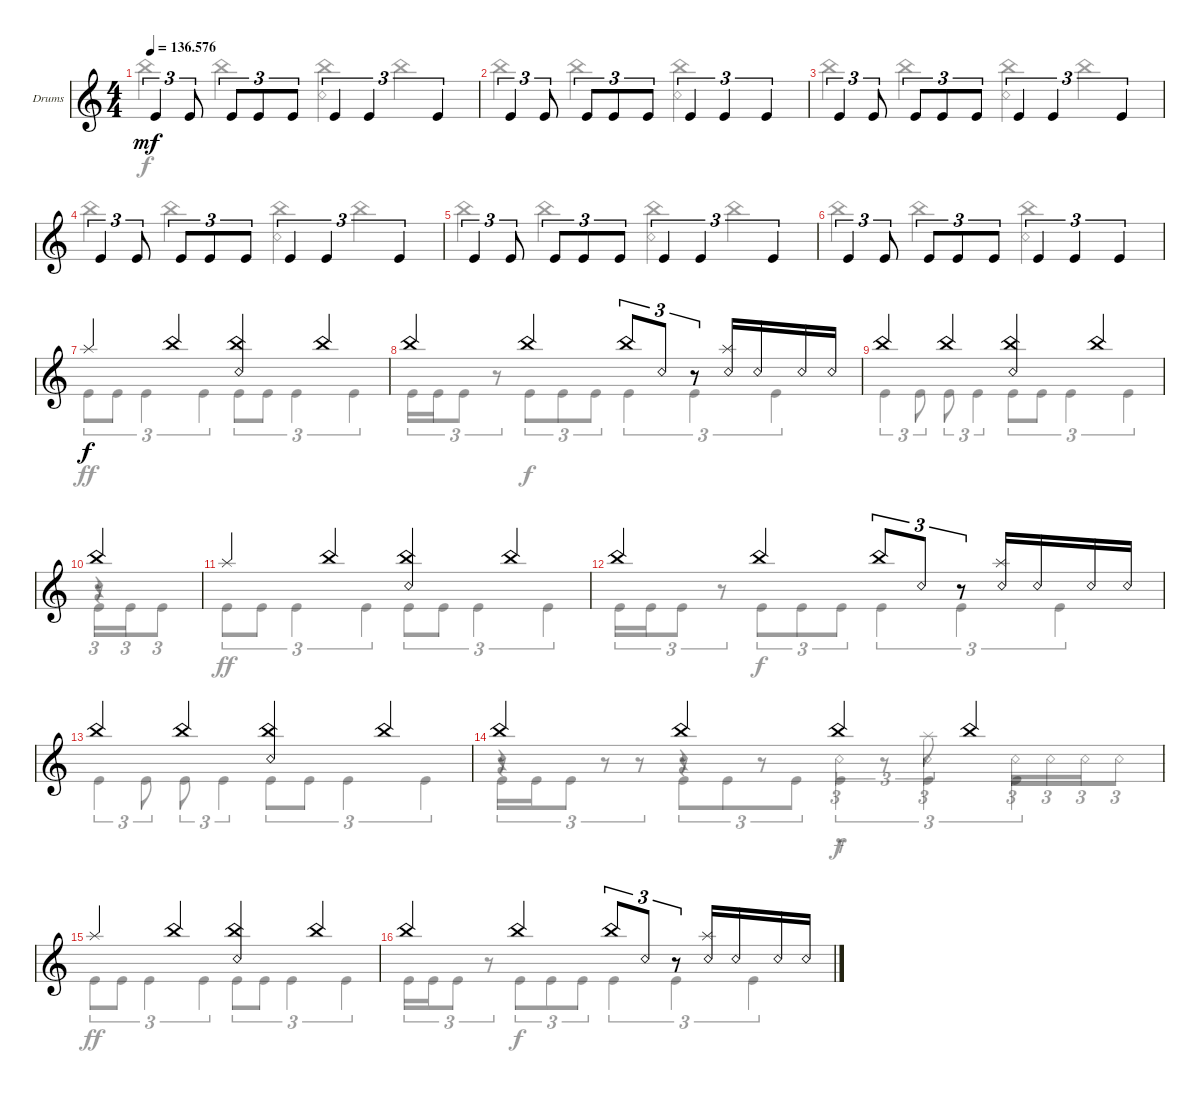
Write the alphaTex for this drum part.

\bracketExtendMode groupsimilarinstruments
\firstSystemTrackNameOrientation horizontal
\otherSystemsTrackNameOrientation horizontal
\track ("Drumkit" "Drums") {instrument percussion}
\staff {score}
\articulation defaults
\voice
\ts (4 4)
\tempo
136.576
\accidentals auto
\clef g2
\ottava regular
\simile none
\ks c "Kick (hit)".4{tu (3 2) dy mf} "Kick (hit)".8{tu (3 2)} "Kick (hit)".8{tu (3 2)} "Kick (hit)".8{tu (3 2)} "Kick (hit)".8{tu (3 2)} "Kick (hit)".4{tu (3 2)} "Kick (hit)".4{tu (3 2)} "Kick (hit)".4{tu (3 2)}
|
"Kick (hit)".4{tu (3 2)} "Kick (hit)".8{tu (3 2)} "Kick (hit)".8{tu (3 2)} "Kick (hit)".8{tu (3 2)} "Kick (hit)".8{tu (3 2)} "Kick (hit)".4{tu (3 2)} "Kick (hit)".4{tu (3 2)} "Kick (hit)".4{tu (3 2)} |
"Kick (hit)".4{tu (3 2)} "Kick (hit)".8{tu (3 2)} "Kick (hit)".8{tu (3 2)} "Kick (hit)".8{tu (3 2)} "Kick (hit)".8{tu (3 2)} "Kick (hit)".4{tu (3 2)} "Kick (hit)".4{tu (3 2)} "Kick (hit)".4{tu (3 2)} |
"Kick (hit)".4{tu (3 2)} "Kick (hit)".8{tu (3 2)} "Kick (hit)".8{tu (3 2)} "Kick (hit)".8{tu (3 2)} "Kick (hit)".8{tu (3 2)} "Kick (hit)".4{tu (3 2)} "Kick (hit)".4{tu (3 2)} "Kick (hit)".4{tu (3 2)} |
"Kick (hit)".4{tu (3 2)} "Kick (hit)".8{tu (3 2)} "Kick (hit)".8{tu (3 2)} "Kick (hit)".8{tu (3 2)} "Kick (hit)".8{tu (3 2)} "Kick (hit)".4{tu (3 2)} "Kick (hit)".4{tu (3 2)} "Kick (hit)".4{tu (3 2)} |
"Kick (hit)".4{tu (3 2)} "Kick (hit)".8{tu (3 2)} "Kick (hit)".8{tu (3 2)} "Kick (hit)".8{tu (3 2)} "Kick (hit)".8{tu (3 2)} "Kick (hit)".4{tu (3 2)} "Kick (hit)".4{tu (3 2)} "Kick (hit)".4{tu (3 2)} |
"Splash (hit)".4{dy f} "China (hit)".4 ("China (hit)" "Snare (rim shot)").4 "China (hit)".4 |
"China (hit)".4 "China (hit)".4 "China (hit)".8{tu (3 2)} "Snare (rim shot)".8{tu (3 2)} r.8{tu (3 2)} ("Snare (rim shot)" "Splash (hit)").16 "Snare (rim shot)".16 "Snare (rim shot)".16 "Snare (rim shot)".16 |
"China (hit)".4 "China (hit)".4 ("China (hit)" "Snare (rim shot)").4 "China (hit)".4 |
"China (hit)".4 |
"Splash (hit)".4 "China (hit)".4 ("China (hit)" "Snare (rim shot)").4 "China (hit)".4 |
"China (hit)".4 "China (hit)".4 "China (hit)".8{tu (3 2)} "Snare (rim shot)".8{tu (3 2)} r.8{tu (3 2)} ("Snare (rim shot)" "Splash (hit)").16 "Snare (rim shot)".16 "Snare (rim shot)".16 "Snare (rim shot)".16 |
"China (hit)".4 "China (hit)".4 ("China (hit)" "Snare (rim shot)").4 "China (hit)".4 |
"China (hit)".4 "China (hit)".4 "China (hit)".4 "China (hit)".4 |
"Splash (hit)".4 "China (hit)".4 ("China (hit)" "Snare (rim shot)").4 "China (hit)".4 |
"China (hit)".4 "China (hit)".4 "China (hit)".8{tu (3 2)} "Snare (rim shot)".8{tu (3 2)} r.8{tu (3 2)} ("Snare (rim shot)" "Splash (hit)").16 "Snare (rim shot)".16 "Snare (rim shot)".16 "Snare (rim shot)".16
\voice
\clef g2
\ottava regular
\simile none
\ks c
|
|
|
|
|
|
|
|
|
r.4 |
|
|
|
r.4 r.4 "Snare (rim shot)".4{tu (3 2)} "Snare (rim shot)".4{tu (3 2)} "Snare (rim shot)".16{tu (3 2)} "Snare (rim shot)".16{tu (3 2)} "Snare (rim shot)".16{tu (3 2)} "Snare (rim shot)".8{tu (3 2)} |
|
\voice
\clef g2
\ottava regular
\simile none
\ks c "China (hit)".4{dy f} "China (hit)".4
("China (hit)" "Snare (rim shot)").4 "China (hit)".4 |
"China (hit)".4 "China (hit)".4 ("China (hit)" "Snare (rim shot)").4 |
"China (hit)".4 "China (hit)".4 ("China (hit)" "Snare (rim shot)").4 "China (hit)".4 |
"China (hit)".4 "China (hit)".4 ("China (hit)" "Snare (rim shot)").4 "China (hit)".4 |
"China (hit)".4 "China (hit)".4 ("China (hit)" "Snare (rim shot)").4 "China (hit)".4 |
"China (hit)".4 "China (hit)".4 ("China (hit)" "Snare (rim shot)").4 |
|
|
|
r.8 |
|
|
|
r.8 r.8 r.8 r.8 r.8{tu (3 2)} r.8{tu (3 2)} "Splash (hit)".8{tu (3 2)} |
|
\voice
\clef g2
\ottava regular
\simile none
\ks c
|
|
|
|
|
|
"Kick (hit)".8{tu (3 2) dy ff} "Kick (hit)".8{tu (3 2)} "Kick (hit)".4{tu (3 2)} "Kick (hit)".4{tu (3 2)} "Kick (hit)".8{tu (3 2)} "Kick (hit)".8{tu (3 2)} "Kick (hit)".4{tu (3 2)} "Kick (hit)".4{tu (3 2)} |
"Kick (hit)".16{tu (3 2)} "Kick (hit)".16{tu (3 2)} "Kick (hit)".8{tu (3 2)} r.8{tu (3 2)} "Kick (hit)".8{tu (3 2) dy f} "Kick (hit)".8{tu (3 2)} "Kick (hit)".8{tu (3 2)} "Kick (hit)".4{tu (3 2)} "Kick (hit)".4{tu (3 2)} "Kick (hit)".4{tu (3 2)} |
"Kick (hit)".4{tu (3 2)} "Kick (hit)".8{tu (3 2)} "Kick (hit)".8{tu (3 2)} "Kick (hit)".4{tu (3 2)} "Kick (hit)".8{tu (3 2)} "Kick (hit)".8{tu (3 2)} "Kick (hit)".4{tu (3 2)} "Kick (hit)".4{tu (3 2)} |
"Kick (hit)".16{tu (3 2)} "Kick (hit)".16{tu (3 2)} "Kick (hit)".8{tu (3 2)} |
"Kick (hit)".8{tu (3 2) dy ff} "Kick (hit)".8{tu (3 2)} "Kick (hit)".4{tu (3 2)} "Kick (hit)".4{tu (3 2)} "Kick (hit)".8{tu (3 2)} "Kick (hit)".8{tu (3 2)} "Kick (hit)".4{tu (3 2)} "Kick (hit)".4{tu (3 2)} |
"Kick (hit)".16{tu (3 2)} "Kick (hit)".16{tu (3 2)} "Kick (hit)".8{tu (3 2)} r.8{tu (3 2)} "Kick (hit)".8{tu (3 2) dy f} "Kick (hit)".8{tu (3 2)} "Kick (hit)".8{tu (3 2)} "Kick (hit)".4{tu (3 2)} "Kick (hit)".4{tu (3 2)} "Kick (hit)".4{tu (3 2)} |
"Kick (hit)".4{tu (3 2)} "Kick (hit)".8{tu (3 2)} "Kick (hit)".8{tu (3 2)} "Kick (hit)".4{tu (3 2)} "Kick (hit)".8{tu (3 2)} "Kick (hit)".8{tu (3 2)} "Kick (hit)".4{tu (3 2)} "Kick (hit)".4{tu (3 2)} |
"Kick (hit)".16{tu (3 2)} "Kick (hit)".16{tu (3 2)} "Kick (hit)".8{tu (3 2)} r.8{tu (3 2)} "Kick (hit)".8{tu (3 2)} "Kick (hit)".8{tu (3 2)} "Kick (hit)".8{tu (3 2)} "Kick (hit)".4{tu (3 2)} "Kick (hit)".4{tu (3 2)} "Kick (hit)".4{tu (3 2)} |
"Kick (hit)".8{tu (3 2) dy ff} "Kick (hit)".8{tu (3 2)} "Kick (hit)".4{tu (3 2)} "Kick (hit)".4{tu (3 2)} "Kick (hit)".8{tu (3 2)} "Kick (hit)".8{tu (3 2)} "Kick (hit)".4{tu (3 2)} "Kick (hit)".4{tu (3 2)} |
"Kick (hit)".16{tu (3 2)} "Kick (hit)".16{tu (3 2)} "Kick (hit)".8{tu (3 2)} r.8{tu (3 2)} "Kick (hit)".8{tu (3 2) dy f} "Kick (hit)".8{tu (3 2)} "Kick (hit)".8{tu (3 2)} "Kick (hit)".4{tu (3 2)} "Kick (hit)".4{tu (3 2)} "Kick (hit)".4{tu (3 2)}
